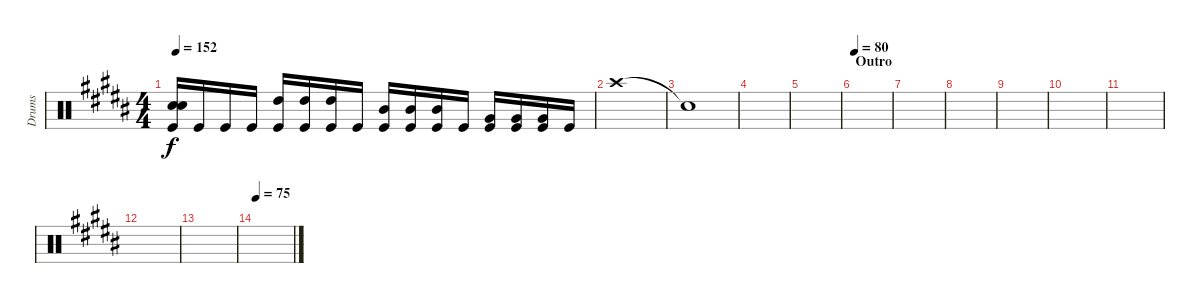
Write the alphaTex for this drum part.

\track ("Drums" "Drums") {instrument percussion}
\staff {score}
\articulation defaults
\ts (4 4)
\tempo 152
\clef neutral
\ks b
("Snare (hit) 2" "Electric Snare (hit)" "Kick (hit)").16{dy f} "Kick (hit)".16 "Kick (hit)".16 "Kick (hit)".16 ("High Tom (hit)" "Kick (hit)").16 ("High Tom (hit)" "Kick (hit)").16 ("High Tom (hit)" "Kick (hit)").16 "Kick (hit)".16 ("Mid Tom (hit)" "Kick (hit)").16 ("Mid Tom (hit)" "Kick (hit)").16 ("Mid Tom (hit)" "Kick (hit)").16 "Kick (hit)".16 ("Very Low Tom (hit)" "Kick (hit)").16 ("Very Low Tom (hit)" "Kick (hit)").16 ("Very Low Tom (hit)" "Kick (hit)").16 "Kick (hit)".16 |
"Crash high (hit)".1 |
"Snare (hit)"{t}.1 |
|
|
\section ("" "Outro")
\tempo 120
\tempo 80
|
|
|
|
|
|
|
|
\tempo 75
